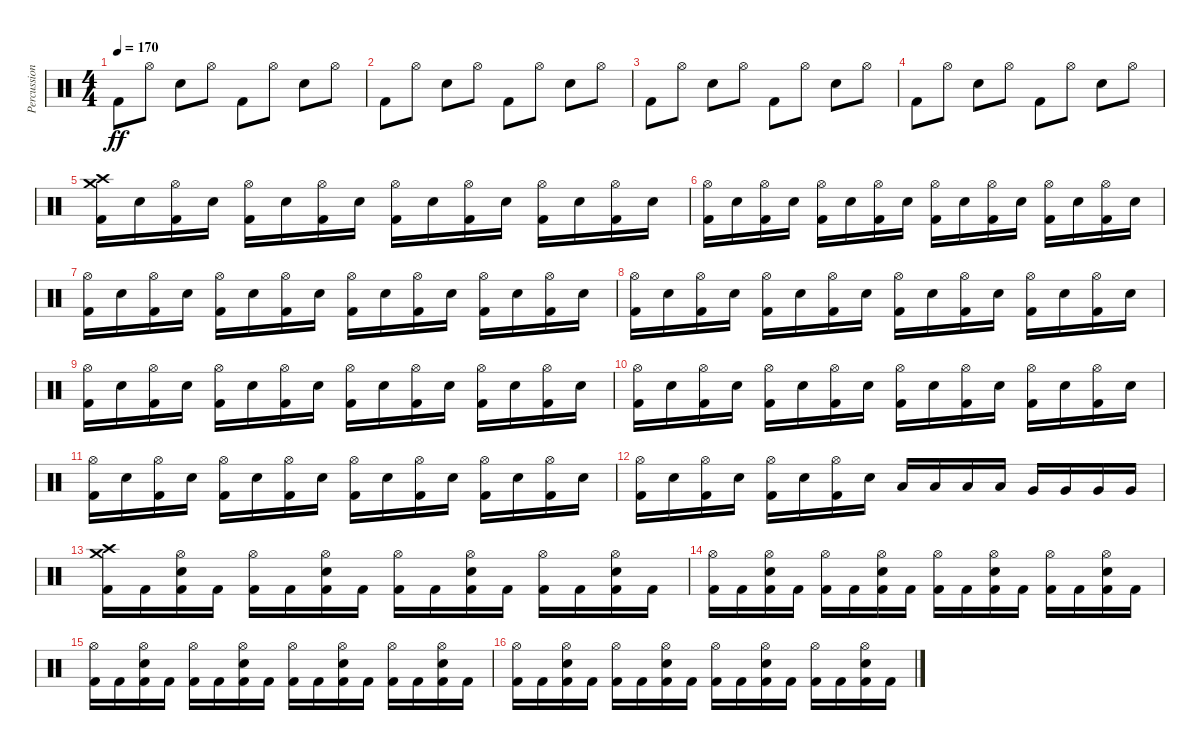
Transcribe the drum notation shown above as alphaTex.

\track ("Percussion" "Percussion") {instrument percussion}
\staff {score}
\articulation defaults
\ts (4 4)
\tempo 170
\clef neutral
\ks c "Kick (hit) 2".8{dy ff} "Hi-Hat (open)".8 "Electric Snare (hit)".8 "Hi-Hat (open)".8 "Kick (hit) 2".8 "Hi-Hat (open)".8 "Electric Snare (hit)".8 "Hi-Hat (open)".8
|
"Kick (hit) 2".8 "Hi-Hat (open)".8 "Electric Snare (hit)".8 "Hi-Hat (open)".8 "Kick (hit) 2".8 "Hi-Hat (open)".8 "Electric Snare (hit)".8 "Hi-Hat (open)".8 |
"Kick (hit) 2".8 "Hi-Hat (open)".8 "Electric Snare (hit)".8 "Hi-Hat (open)".8 "Kick (hit) 2".8 "Hi-Hat (open)".8 "Electric Snare (hit)".8 "Hi-Hat (open)".8 |
"Kick (hit) 2".8 "Hi-Hat (open)".8 "Electric Snare (hit)".8 "Hi-Hat (open)".8 "Kick (hit) 2".8 "Hi-Hat (open)".8 "Electric Snare (hit)".8 "Hi-Hat (open)".8 |
("Kick (hit) 2" "Crash medium (hit)" "Crash high (hit)").16 "Electric Snare (hit)".16 ("Kick (hit) 2" "Hi-Hat (open)").16 "Electric Snare (hit)".16 ("Kick (hit) 2" "Hi-Hat (open)").16 "Electric Snare (hit)".16 ("Kick (hit) 2" "Hi-Hat (open)").16 "Electric Snare (hit)".16 ("Kick (hit) 2" "Hi-Hat (open)").16 "Electric Snare (hit)".16 ("Kick (hit) 2" "Hi-Hat (open)").16 "Electric Snare (hit)".16 ("Kick (hit) 2" "Hi-Hat (open)").16 "Electric Snare (hit)".16 ("Kick (hit) 2" "Hi-Hat (open)").16 "Electric Snare (hit)".16 |
("Kick (hit) 2" "Hi-Hat (open)").16 "Electric Snare (hit)".16 ("Kick (hit) 2" "Hi-Hat (open)").16 "Electric Snare (hit)".16 ("Kick (hit) 2" "Hi-Hat (open)").16 "Electric Snare (hit)".16 ("Kick (hit) 2" "Hi-Hat (open)").16 "Electric Snare (hit)".16 ("Kick (hit) 2" "Hi-Hat (open)").16 "Electric Snare (hit)".16 ("Kick (hit) 2" "Hi-Hat (open)").16 "Electric Snare (hit)".16 ("Kick (hit) 2" "Hi-Hat (open)").16 "Electric Snare (hit)".16 ("Kick (hit) 2" "Hi-Hat (open)").16 "Electric Snare (hit)".16 |
("Kick (hit) 2" "Hi-Hat (open)").16 "Electric Snare (hit)".16 ("Kick (hit) 2" "Hi-Hat (open)").16 "Electric Snare (hit)".16 ("Kick (hit) 2" "Hi-Hat (open)").16 "Electric Snare (hit)".16 ("Kick (hit) 2" "Hi-Hat (open)").16 "Electric Snare (hit)".16 ("Kick (hit) 2" "Hi-Hat (open)").16 "Electric Snare (hit)".16 ("Kick (hit) 2" "Hi-Hat (open)").16 "Electric Snare (hit)".16 ("Kick (hit) 2" "Hi-Hat (open)").16 "Electric Snare (hit)".16 ("Kick (hit) 2" "Hi-Hat (open)").16 "Electric Snare (hit)".16 |
("Kick (hit) 2" "Hi-Hat (open)").16 "Electric Snare (hit)".16 ("Kick (hit) 2" "Hi-Hat (open)").16 "Electric Snare (hit)".16 ("Kick (hit) 2" "Hi-Hat (open)").16 "Electric Snare (hit)".16 ("Kick (hit) 2" "Hi-Hat (open)").16 "Electric Snare (hit)".16 ("Kick (hit) 2" "Hi-Hat (open)").16 "Electric Snare (hit)".16 ("Kick (hit) 2" "Hi-Hat (open)").16 "Electric Snare (hit)".16 ("Kick (hit) 2" "Hi-Hat (open)").16 "Electric Snare (hit)".16 ("Kick (hit) 2" "Hi-Hat (open)").16 "Electric Snare (hit)".16 |
("Kick (hit) 2" "Hi-Hat (open)").16 "Electric Snare (hit)".16 ("Kick (hit) 2" "Hi-Hat (open)").16 "Electric Snare (hit)".16 ("Kick (hit) 2" "Hi-Hat (open)").16 "Electric Snare (hit)".16 ("Kick (hit) 2" "Hi-Hat (open)").16 "Electric Snare (hit)".16 ("Kick (hit) 2" "Hi-Hat (open)").16 "Electric Snare (hit)".16 ("Kick (hit) 2" "Hi-Hat (open)").16 "Electric Snare (hit)".16 ("Kick (hit) 2" "Hi-Hat (open)").16 "Electric Snare (hit)".16 ("Kick (hit) 2" "Hi-Hat (open)").16 "Electric Snare (hit)".16 |
("Kick (hit) 2" "Hi-Hat (open)").16 "Electric Snare (hit)".16 ("Kick (hit) 2" "Hi-Hat (open)").16 "Electric Snare (hit)".16 ("Kick (hit) 2" "Hi-Hat (open)").16 "Electric Snare (hit)".16 ("Kick (hit) 2" "Hi-Hat (open)").16 "Electric Snare (hit)".16 ("Kick (hit) 2" "Hi-Hat (open)").16 "Electric Snare (hit)".16 ("Kick (hit) 2" "Hi-Hat (open)").16 "Electric Snare (hit)".16 ("Kick (hit) 2" "Hi-Hat (open)").16 "Electric Snare (hit)".16 ("Kick (hit) 2" "Hi-Hat (open)").16 "Electric Snare (hit)".16 |
("Kick (hit) 2" "Hi-Hat (open)").16 "Electric Snare (hit)".16 ("Kick (hit) 2" "Hi-Hat (open)").16 "Electric Snare (hit)".16 ("Kick (hit) 2" "Hi-Hat (open)").16 "Electric Snare (hit)".16 ("Kick (hit) 2" "Hi-Hat (open)").16 "Electric Snare (hit)".16 ("Kick (hit) 2" "Hi-Hat (open)").16 "Electric Snare (hit)".16 ("Kick (hit) 2" "Hi-Hat (open)").16 "Electric Snare (hit)".16 ("Kick (hit) 2" "Hi-Hat (open)").16 "Electric Snare (hit)".16 ("Kick (hit) 2" "Hi-Hat (open)").16 "Electric Snare (hit)".16 |
("Kick (hit) 2" "Hi-Hat (open)").16 "Electric Snare (hit)".16 ("Kick (hit) 2" "Hi-Hat (open)").16 "Electric Snare (hit)".16 ("Kick (hit) 2" "Hi-Hat (open)").16 "Electric Snare (hit)".16 ("Kick (hit) 2" "Hi-Hat (open)").16 "Electric Snare (hit)".16 "Low Tom (hit)".16 "Low Tom (hit)".16 "Low Tom (hit)".16 "Low Tom (hit)".16 "Very Low Tom (hit)".16 "Very Low Tom (hit)".16 "Very Low Tom (hit)".16 "Very Low Tom (hit)".16 |
("Kick (hit) 2" "Crash medium (hit)" "Crash high (hit)").16 "Kick (hit) 2".16 ("Kick (hit) 2" "Electric Snare (hit)" "Hi-Hat (open)").16 "Kick (hit) 2".16 ("Kick (hit) 2" "Hi-Hat (open)").16 "Kick (hit) 2".16 ("Kick (hit) 2" "Electric Snare (hit)" "Hi-Hat (open)").16 "Kick (hit) 2".16 ("Kick (hit) 2" "Hi-Hat (open)").16 "Kick (hit) 2".16 ("Kick (hit) 2" "Electric Snare (hit)" "Hi-Hat (open)").16 "Kick (hit) 2".16 ("Kick (hit) 2" "Hi-Hat (open)").16 "Kick (hit) 2".16 ("Kick (hit) 2" "Electric Snare (hit)" "Hi-Hat (open)").16 "Kick (hit) 2".16 |
("Kick (hit) 2" "Hi-Hat (open)").16 "Kick (hit) 2".16 ("Kick (hit) 2" "Electric Snare (hit)" "Hi-Hat (open)").16 "Kick (hit) 2".16 ("Kick (hit) 2" "Hi-Hat (open)").16 "Kick (hit) 2".16 ("Kick (hit) 2" "Electric Snare (hit)" "Hi-Hat (open)").16 "Kick (hit) 2".16 ("Kick (hit) 2" "Hi-Hat (open)").16 "Kick (hit) 2".16 ("Kick (hit) 2" "Electric Snare (hit)" "Hi-Hat (open)").16 "Kick (hit) 2".16 ("Kick (hit) 2" "Hi-Hat (open)").16 "Kick (hit) 2".16 ("Kick (hit) 2" "Electric Snare (hit)" "Hi-Hat (open)").16 "Kick (hit) 2".16 |
("Kick (hit) 2" "Hi-Hat (open)").16 "Kick (hit) 2".16 ("Kick (hit) 2" "Electric Snare (hit)" "Hi-Hat (open)").16 "Kick (hit) 2".16 ("Kick (hit) 2" "Hi-Hat (open)").16 "Kick (hit) 2".16 ("Kick (hit) 2" "Electric Snare (hit)" "Hi-Hat (open)").16 "Kick (hit) 2".16 ("Kick (hit) 2" "Hi-Hat (open)").16 "Kick (hit) 2".16 ("Kick (hit) 2" "Electric Snare (hit)" "Hi-Hat (open)").16 "Kick (hit) 2".16 ("Kick (hit) 2" "Hi-Hat (open)").16 "Kick (hit) 2".16 ("Kick (hit) 2" "Electric Snare (hit)" "Hi-Hat (open)").16 "Kick (hit) 2".16 |
("Kick (hit) 2" "Hi-Hat (open)").16 "Kick (hit) 2".16 ("Kick (hit) 2" "Electric Snare (hit)" "Hi-Hat (open)").16 "Kick (hit) 2".16 ("Kick (hit) 2" "Hi-Hat (open)").16 "Kick (hit) 2".16 ("Kick (hit) 2" "Electric Snare (hit)" "Hi-Hat (open)").16 "Kick (hit) 2".16 ("Kick (hit) 2" "Hi-Hat (open)").16 "Kick (hit) 2".16 ("Kick (hit) 2" "Electric Snare (hit)" "Hi-Hat (open)").16 "Kick (hit) 2".16 ("Kick (hit) 2" "Hi-Hat (open)").16 "Kick (hit) 2".16 ("Kick (hit) 2" "Electric Snare (hit)" "Hi-Hat (open)").16 "Kick (hit) 2".16
